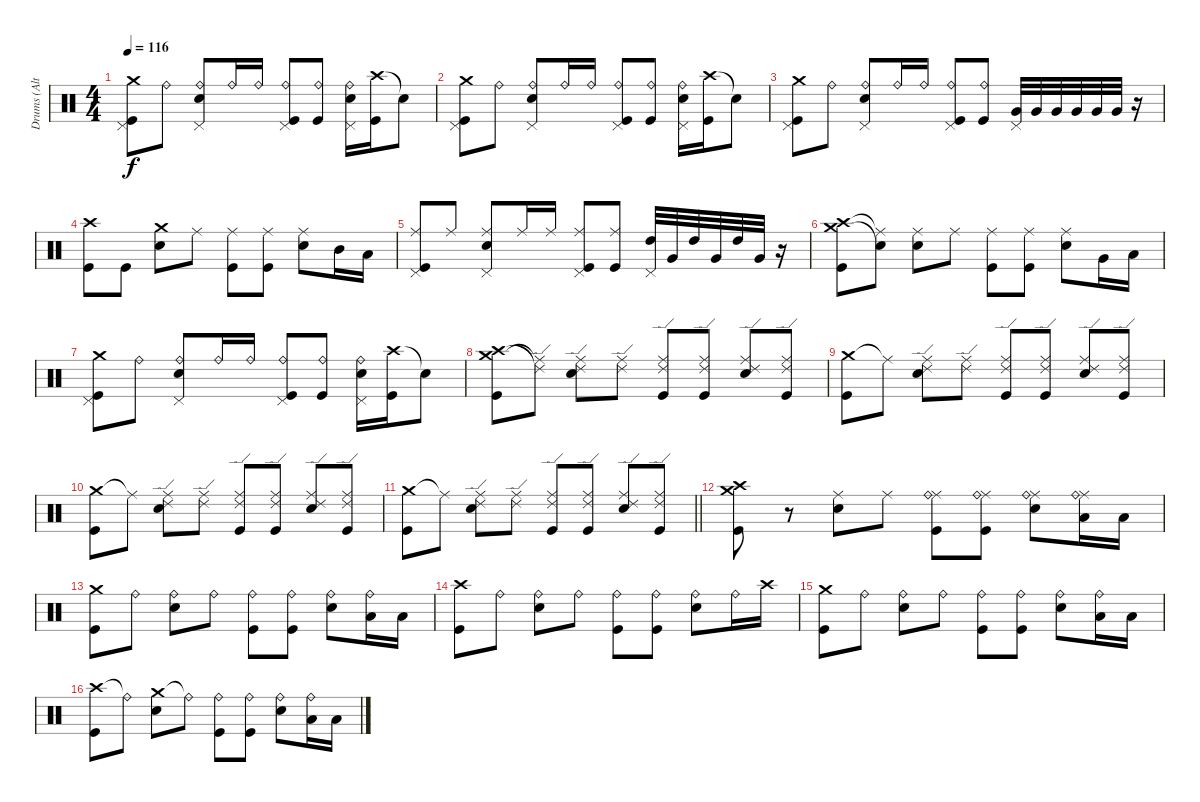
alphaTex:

\track ("Drums (Alternate - NOT ON MASTER)" "Drums (Alt") {mute instrument percussion}
\staff {score}
\articulation defaults
\ts (4 4)
\tempo 116
\clef neutral
\ks c
("Crash medium (hit)" "Pedal Hi-Hat (hit)" "Kick (hit)").8{dy f} "Ride (bell)".8 ("Ride (bell)" "Snare (hit) 2" "Pedal Hi-Hat (hit)").8 "Ride (bell)".16 "Ride (bell)".16 ("Ride (bell)" "Pedal Hi-Hat (hit)" "Kick (hit)").8 ("Ride (bell)" "Kick (hit)").8 ("Ride (bell)" "Snare (hit) 2" "Pedal Hi-Hat (hit)").16 ("Crash high (hit)" "Kick (hit)").16 "Snare (hit)"{t}.8 |
("Crash medium (hit)" "Pedal Hi-Hat (hit)" "Kick (hit)").8 "Ride (bell)".8 ("Ride (bell)" "Snare (hit) 2" "Pedal Hi-Hat (hit)").8 "Ride (bell)".16 "Ride (bell)".16 ("Ride (bell)" "Pedal Hi-Hat (hit)" "Kick (hit)").8 ("Ride (bell)" "Kick (hit)").8 ("Ride (bell)" "Snare (hit) 2" "Pedal Hi-Hat (hit)").16 ("Crash high (hit)" "Kick (hit)").16 "Snare (hit)"{t}.8 |
("Crash medium (hit)" "Pedal Hi-Hat (hit)" "Kick (hit)").8 "Ride (bell)".8 ("Ride (bell)" "Snare (hit) 2" "Pedal Hi-Hat (hit)").8 "Ride (bell)".16 "Ride (bell)".16 ("Ride (bell)" "Pedal Hi-Hat (hit)" "Kick (hit)").8 ("Ride (bell)" "Kick (hit)").8 ("Very Low Tom (hit)" "Pedal Hi-Hat (hit)").32 "Very Low Tom (hit)".32 "Very Low Tom (hit)".32 "Very Low Tom (hit)".32 "Very Low Tom (hit)".32 "Very Low Tom (hit)".32 r.16 |
("Crash high (hit)" "Kick (hit)").8 "Kick (hit)".8 ("Crash medium (hit)" "Snare (hit) 2").8 "Ride (middle)".8 ("Ride (middle)" "Kick (hit)").8 ("Ride (middle)" "Kick (hit)").8 ("Ride (middle)" "Snare (hit) 2").8 "Mid Tom (hit)".16 "Low Tom (hit)".16 |
("Ride (middle)" "Pedal Hi-Hat (hit)" "Kick (hit)").8 "Ride (middle)".8 ("Ride (middle)" "Snare (hit) 2" "Pedal Hi-Hat (hit)").8 "Ride (middle)".16 "Ride (middle)".16 ("Ride (middle)" "Pedal Hi-Hat (hit)" "Kick (hit)").8 ("Ride (middle)" "Kick (hit)").8 ("High Tom (hit)" "Pedal Hi-Hat (hit)").32 "Very Low Tom (hit)".32 "High Tom (hit)".32 "Very Low Tom (hit)".32 "High Tom (hit)".32 "Very Low Tom (hit)".32 r.16 |
("Crash high (hit)" "Crash medium (hit)" "Kick (hit)").8 ("Ride (middle)"{t} "Snare (hit)"{t}).8 ("Ride (middle)" "Snare (hit) 2").8 "Ride (middle)".8 ("Ride (middle)" "Kick (hit)").8 ("Ride (middle)" "Kick (hit)").8 ("Ride (middle)" "Snare (hit) 2").8 "Very Low Tom (hit)".16 "Low Floor Tom (hit)".16 |
("Crash medium (hit)" "Pedal Hi-Hat (hit)" "Kick (hit)").8 "Ride (bell)".8 ("Ride (bell)" "Snare (hit) 2" "Pedal Hi-Hat (hit)").8 "Ride (bell)".16 "Ride (bell)".16 ("Ride (bell)" "Pedal Hi-Hat (hit)" "Kick (hit)").8 ("Ride (bell)" "Kick (hit)").8 ("Ride (bell)" "Snare (hit) 2" "Pedal Hi-Hat (hit)").16 ("Crash high (hit)" "Kick (hit)").16 "Snare (hit)"{t}.8 |
("Crash medium (hit)" "Crash high (hit)" "Kick (hit)").8 ("Ride (middle)"{t} "Ride (edge) 2"{t}).8 ("Ride (middle)" "Ride (edge) 2" "Snare (hit) 2").8 ("Ride (middle)" "Ride (edge) 2").8 ("Ride (middle)" "Ride (edge) 2" "Kick (hit)").8 ("Ride (middle)" "Ride (edge) 2" "Kick (hit)").8 ("Ride (middle)" "Ride (edge) 2" "Snare (hit) 2").8 ("Ride (middle)" "Ride (edge) 2" "Kick (hit)").8 |
("Crash medium (hit)" "Kick (hit)").8 "Ride (middle)"{t}.8 ("Ride (middle)" "Ride (edge) 2" "Snare (hit) 2").8 ("Ride (middle)" "Ride (edge) 2").8 ("Ride (middle)" "Ride (edge) 2" "Kick (hit)").8 ("Ride (middle)" "Ride (edge) 2" "Kick (hit)").8 ("Ride (middle)" "Ride (edge) 2" "Snare (hit) 2").8 ("Ride (middle)" "Ride (edge) 2" "Kick (hit)").8 |
("Crash medium (hit)" "Kick (hit)").8 "Ride (middle)"{t}.8 ("Ride (middle)" "Ride (edge) 2" "Snare (hit) 2").8 ("Ride (middle)" "Ride (edge) 2").8 ("Ride (middle)" "Ride (edge) 2" "Kick (hit)").8 ("Ride (middle)" "Ride (edge) 2" "Kick (hit)").8 ("Ride (middle)" "Ride (edge) 2" "Snare (hit) 2").8 ("Ride (middle)" "Ride (edge) 2" "Kick (hit)").8 |
\barLineRight lightlight
("Crash medium (hit)" "Kick (hit)").8 "Ride (middle)"{t}.8 ("Ride (middle)" "Ride (edge) 2" "Snare (hit) 2").8 ("Ride (middle)" "Ride (edge) 2").8 ("Ride (middle)" "Ride (edge) 2" "Kick (hit)").8 ("Ride (middle)" "Ride (edge) 2" "Kick (hit)").8 ("Ride (middle)" "Ride (edge) 2" "Snare (hit) 2").8 ("Ride (middle)" "Ride (edge) 2" "Kick (hit)").8 |
("Crash medium (hit)" "Crash high (hit)" "Kick (hit)").8 r.8 ("Ride (middle)" "Snare (hit) 2").8 "Ride (middle)".8 ("Ride (middle)" "Ride (bell)" "Kick (hit)").8 ("Ride (middle)" "Ride (bell)" "Kick (hit)").8 ("Ride (middle)" "Ride (bell)" "Snare (hit) 2").8 ("Ride (middle)" "Ride (bell)" "Low Tom (hit)").16 "Low Tom (hit)".16 |
("Crash medium (hit)" "Kick (hit)").8 "Ride (bell)".8 ("Ride (bell)" "Snare (hit) 2").8 "Ride (bell)".8 ("Ride (bell)" "Kick (hit)").8 ("Ride (bell)" "Kick (hit)").8 ("Ride (bell)" "Snare (hit) 2").8 ("Ride (bell)" "Low Tom (hit)").16 "Low Tom (hit)".16 |
("Crash high (hit)" "Kick (hit)").8 "Ride (bell)".8 ("Ride (bell)" "Snare (hit) 2").8 "Ride (bell)".8 ("Ride (bell)" "Kick (hit)").8 ("Ride (bell)" "Kick (hit)").8 ("Ride (bell)" "Snare (hit) 2").8 "Ride (bell)".16 "Crash high (hit)".16 |
("Crash medium (hit)" "Kick (hit)").8 "Ride (bell)".8 ("Ride (bell)" "Snare (hit) 2").8 "Ride (bell)".8 ("Ride (bell)" "Kick (hit)").8 ("Ride (bell)" "Kick (hit)").8 ("Ride (bell)" "Snare (hit) 2").8 ("Ride (bell)" "Low Tom (hit)").16 "Low Tom (hit)".16 |
("Crash high (hit)" "Kick (hit)").8 "Ride (bell)"{t}.8 ("Crash medium (hit)" "Snare (hit) 2").8 "Ride (bell)"{t}.8 ("Ride (bell)" "Kick (hit)").8 ("Ride (bell)" "Kick (hit)").8 ("Ride (bell)" "Snare (hit) 2").8 ("Ride (bell)" "Low Tom (hit)").16 "Low Tom (hit)".16
